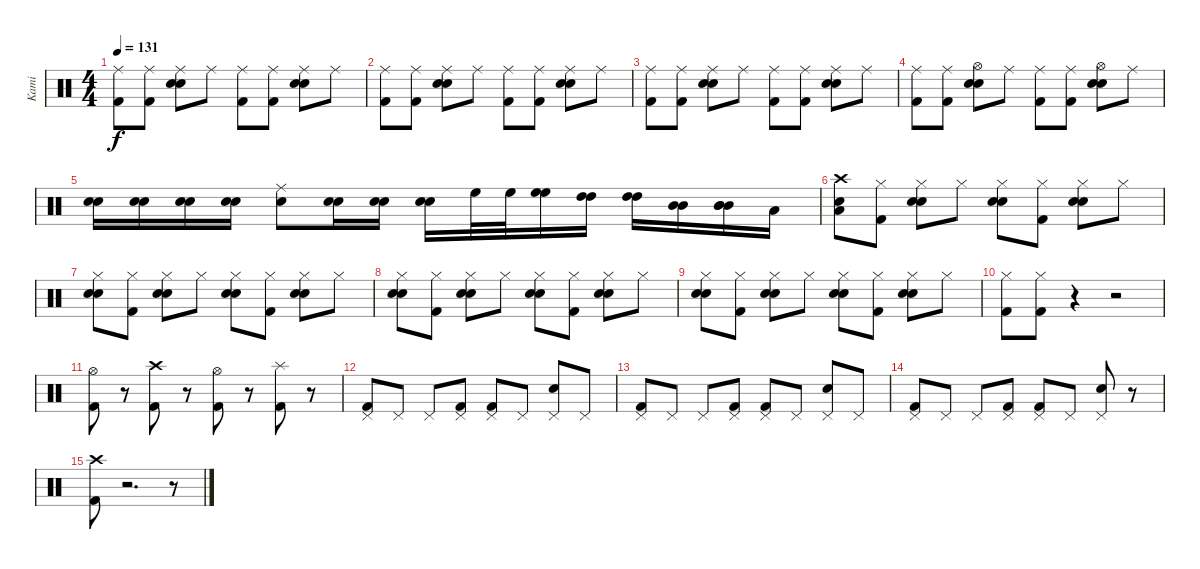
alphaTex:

\track ("Kami" "Kami") {instrument percussion}
\staff {score}
\articulation defaults
\ts (4 4)
\tempo 131
\clef neutral
\ks c
("Ride (middle)" "Kick (hit) 2").8{dy f} ("Ride (middle)" "Kick (hit) 2").8 ("Ride (middle)" "Electric Snare (hit)" "Electric Snare (hit)").8 "Ride (middle)".8 ("Ride (middle)" "Kick (hit) 2").8 ("Ride (middle)" "Kick (hit) 2").8 ("Ride (middle)" "Electric Snare (hit)" "Electric Snare (hit)").8 "Ride (middle)".8 |
("Ride (middle)" "Kick (hit) 2").8 ("Ride (middle)" "Kick (hit) 2").8 ("Ride (middle)" "Electric Snare (hit)" "Electric Snare (hit)").8 "Ride (middle)".8 ("Ride (middle)" "Kick (hit) 2").8 ("Ride (middle)" "Kick (hit) 2").8 ("Ride (middle)" "Electric Snare (hit)" "Electric Snare (hit)").8 "Ride (middle)".8 |
("Ride (middle)" "Kick (hit) 2").8 ("Ride (middle)" "Kick (hit) 2").8 ("Ride (middle)" "Electric Snare (hit)" "Electric Snare (hit)").8 "Ride (middle)".8 ("Ride (middle)" "Kick (hit) 2").8 ("Ride (middle)" "Kick (hit) 2").8 ("Ride (middle)" "Electric Snare (hit)" "Electric Snare (hit)").8 "Ride (middle)".8 |
("Ride (middle)" "Kick (hit) 2").8 ("Ride (middle)" "Kick (hit) 2").8 ("Hi-Hat (open)" "Electric Snare (hit)" "Electric Snare (hit)").8 "Ride (middle)".8 ("Ride (middle)" "Kick (hit) 2").8 ("Ride (middle)" "Kick (hit) 2").8 ("Hi-Hat (open)" "Electric Snare (hit)" "Electric Snare (hit)").8 "Ride (middle)".8 |
("Electric Snare (hit)" "Electric Snare (hit)").16 ("Electric Snare (hit)" "Electric Snare (hit)").16 ("Electric Snare (hit)" "Electric Snare (hit)").16 ("Electric Snare (hit)" "Electric Snare (hit)").16 ("Ride (middle)" "Electric Snare (hit)").8 ("Electric Snare (hit)" "Electric Snare (hit)").16 ("Electric Snare (hit)" "Electric Snare (hit)").16 ("Electric Snare (hit)" "Electric Snare (hit)").16 "High Floor Tom (hit)".32 "High Floor Tom (hit)".32 ("High Floor Tom (hit)" "High Floor Tom (hit)").16 ("High Tom (hit)" "High Tom (hit)").16 ("High Tom (hit)" "High Tom (hit)").16 ("Mid Tom (hit)" "Mid Tom (hit)").16 ("Mid Tom (hit)" "Mid Tom (hit)" "Mid Tom (hit)").16 "Low Tom (hit)".16 |
("Crash high (hit)" "Electric Snare (hit)" "Low Tom (hit)").8 ("Hi-Hat (closed)" "Kick (hit) 2").8 ("Hi-Hat (closed)" "Electric Snare (hit)" "Electric Snare (hit)").8 "Hi-Hat (closed)".8 ("Hi-Hat (closed)" "Electric Snare (hit)" "Electric Snare (hit)").8 ("Hi-Hat (closed)" "Kick (hit) 2").8 ("Hi-Hat (closed)" "Electric Snare (hit)" "Electric Snare (hit)").8 "Hi-Hat (closed)".8 |
("Hi-Hat (closed)" "Electric Snare (hit)" "Electric Snare (hit)").8 ("Hi-Hat (closed)" "Kick (hit) 2").8 ("Hi-Hat (closed)" "Electric Snare (hit)" "Electric Snare (hit)").8 "Hi-Hat (closed)".8 ("Hi-Hat (closed)" "Electric Snare (hit)" "Electric Snare (hit)").8 ("Hi-Hat (closed)" "Kick (hit) 2").8 ("Hi-Hat (closed)" "Electric Snare (hit)" "Electric Snare (hit)").8 "Hi-Hat (closed)".8 |
("Hi-Hat (closed)" "Electric Snare (hit)" "Electric Snare (hit)").8 ("Hi-Hat (closed)" "Kick (hit) 2").8 ("Hi-Hat (closed)" "Electric Snare (hit)" "Electric Snare (hit)").8 "Hi-Hat (closed)".8 ("Hi-Hat (closed)" "Electric Snare (hit)" "Electric Snare (hit)").8 ("Hi-Hat (closed)" "Kick (hit) 2").8 ("Hi-Hat (closed)" "Electric Snare (hit)" "Electric Snare (hit)").8 "Hi-Hat (closed)".8 |
("Hi-Hat (closed)" "Electric Snare (hit)" "Electric Snare (hit)").8 ("Hi-Hat (closed)" "Kick (hit) 2").8 ("Hi-Hat (closed)" "Electric Snare (hit)" "Electric Snare (hit)").8 "Hi-Hat (closed)".8 ("Hi-Hat (closed)" "Electric Snare (hit)" "Electric Snare (hit)").8 ("Hi-Hat (closed)" "Kick (hit) 2").8 ("Hi-Hat (closed)" "Electric Snare (hit)" "Electric Snare (hit)").8 "Hi-Hat (closed)".8 |
("Hi-Hat (closed)" "Kick (hit) 2").8 ("Hi-Hat (closed)" "Kick (hit) 2").8 r.4 r.2 |
("Hi-Hat (open)" "Kick (hit) 2").8 r.8 ("Crash high (hit)" "Kick (hit) 2").8 r.8 ("Hi-Hat (open)" "Kick (hit) 2").8 r.8 ("Splash (hit)" "Kick (hit) 2").8 r.8 |
("Pedal Hi-Hat (hit)" "Kick (hit) 2").8 "Pedal Hi-Hat (hit)".8 "Pedal Hi-Hat (hit)".8 ("Pedal Hi-Hat (hit)" "Kick (hit) 2").8 ("Pedal Hi-Hat (hit)" "Kick (hit) 2").8 "Pedal Hi-Hat (hit)".8 ("Pedal Hi-Hat (hit)" "Electric Snare (hit)").8 "Pedal Hi-Hat (hit)".8 |
("Pedal Hi-Hat (hit)" "Kick (hit) 2").8 "Pedal Hi-Hat (hit)".8 "Pedal Hi-Hat (hit)".8 ("Pedal Hi-Hat (hit)" "Kick (hit) 2").8 ("Pedal Hi-Hat (hit)" "Kick (hit) 2").8 "Pedal Hi-Hat (hit)".8 ("Pedal Hi-Hat (hit)" "Electric Snare (hit)").8 "Pedal Hi-Hat (hit)".8 |
("Pedal Hi-Hat (hit)" "Kick (hit) 2").8 "Pedal Hi-Hat (hit)".8 "Pedal Hi-Hat (hit)".8 ("Pedal Hi-Hat (hit)" "Kick (hit) 2").8 ("Pedal Hi-Hat (hit)" "Kick (hit) 2").8 "Pedal Hi-Hat (hit)".8 ("Pedal Hi-Hat (hit)" "Electric Snare (hit)").8 r.8 |
("Crash high (hit)" "Kick (hit) 2").8 r.2{d} r.8
